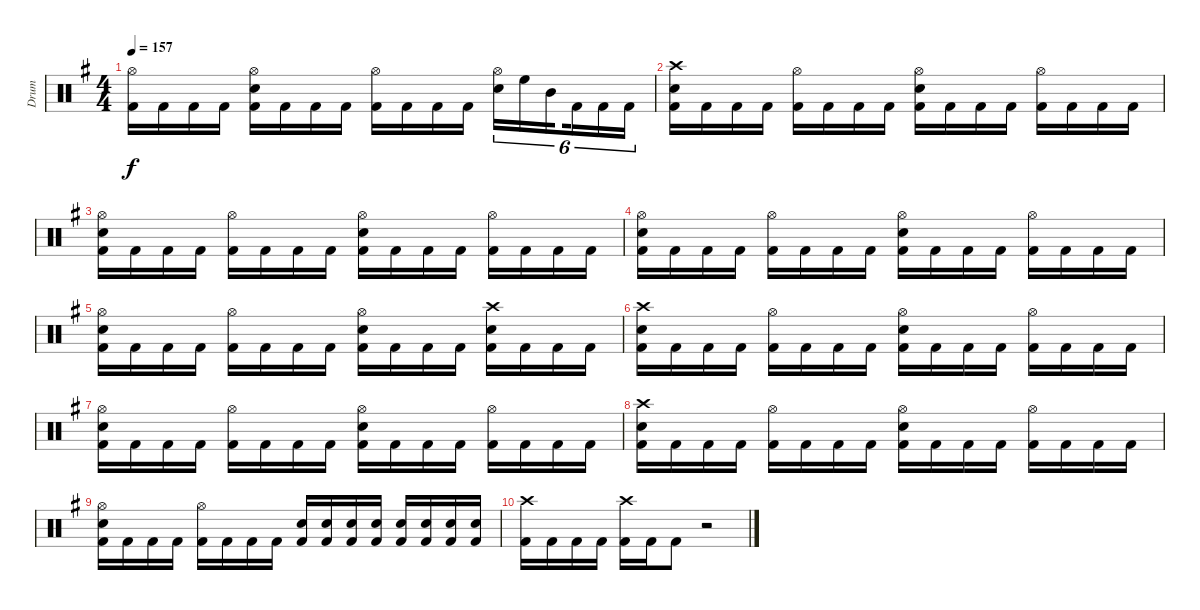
\track ("Drum" "Drum") {instrument percussion}
\staff {score}
\articulation defaults
\ts (4 4)
\tempo 157
\clef neutral
\ks eminor
("Hi-Hat (open)" "Kick (hit) 2").16{dy f} "Kick (hit) 2".16 "Kick (hit) 2".16 "Kick (hit) 2".16 ("Hi-Hat (open)" "Snare (hit) 2" "Kick (hit) 2").16 "Kick (hit) 2".16 "Kick (hit) 2".16 "Kick (hit) 2".16 ("Hi-Hat (open)" "Kick (hit) 2").16 "Kick (hit) 2".16 "Kick (hit) 2".16 "Kick (hit) 2".16 ("Hi-Hat (open)" "Snare (hit) 2").16{tu (6 4)} "High Floor Tom (hit)".16{tu (6 4)} "Mid Tom (hit)".16{tu (6 4) beam splitsecondary} "Kick (hit) 2".16{tu (6 4)} "Kick (hit) 2".16{tu (6 4)} "Kick (hit) 2".16{tu (6 4)} |
("Crash high (hit)" "Snare (hit) 2" "Kick (hit) 2").16 "Kick (hit) 2".16 "Kick (hit) 2".16 "Kick (hit) 2".16 ("Hi-Hat (open)" "Kick (hit) 2").16 "Kick (hit) 2".16 "Kick (hit) 2".16 "Kick (hit) 2".16 ("Hi-Hat (open)" "Snare (hit) 2" "Kick (hit) 2").16 "Kick (hit) 2".16 "Kick (hit) 2".16 "Kick (hit) 2".16 ("Hi-Hat (open)" "Kick (hit) 2").16 "Kick (hit) 2".16 "Kick (hit) 2".16 "Kick (hit) 2".16 |
("Hi-Hat (open)" "Snare (hit) 2" "Kick (hit) 2").16 "Kick (hit) 2".16 "Kick (hit) 2".16 "Kick (hit) 2".16 ("Hi-Hat (open)" "Kick (hit) 2").16 "Kick (hit) 2".16 "Kick (hit) 2".16 "Kick (hit) 2".16 ("Hi-Hat (open)" "Snare (hit) 2" "Kick (hit) 2").16 "Kick (hit) 2".16 "Kick (hit) 2".16 "Kick (hit) 2".16 ("Hi-Hat (open)" "Kick (hit) 2").16 "Kick (hit) 2".16 "Kick (hit) 2".16 "Kick (hit) 2".16 |
("Hi-Hat (open)" "Snare (hit) 2" "Kick (hit) 2").16 "Kick (hit) 2".16 "Kick (hit) 2".16 "Kick (hit) 2".16 ("Hi-Hat (open)" "Kick (hit) 2").16 "Kick (hit) 2".16 "Kick (hit) 2".16 "Kick (hit) 2".16 ("Hi-Hat (open)" "Snare (hit) 2" "Kick (hit) 2").16 "Kick (hit) 2".16 "Kick (hit) 2".16 "Kick (hit) 2".16 ("Hi-Hat (open)" "Kick (hit) 2").16 "Kick (hit) 2".16 "Kick (hit) 2".16 "Kick (hit) 2".16 |
("Hi-Hat (open)" "Snare (hit) 2" "Kick (hit) 2").16 "Kick (hit) 2".16 "Kick (hit) 2".16 "Kick (hit) 2".16 ("Hi-Hat (open)" "Kick (hit) 2").16 "Kick (hit) 2".16 "Kick (hit) 2".16 "Kick (hit) 2".16 ("Hi-Hat (open)" "Snare (hit) 2" "Kick (hit) 2").16 "Kick (hit) 2".16 "Kick (hit) 2".16 "Kick (hit) 2".16 ("Crash high (hit)" "Snare (hit) 2" "Kick (hit) 2").16 "Kick (hit) 2".16 "Kick (hit) 2".16 "Kick (hit) 2".16 |
("Crash high (hit)" "Snare (hit) 2" "Kick (hit) 2").16 "Kick (hit) 2".16 "Kick (hit) 2".16 "Kick (hit) 2".16 ("Hi-Hat (open)" "Kick (hit) 2").16 "Kick (hit) 2".16 "Kick (hit) 2".16 "Kick (hit) 2".16 ("Hi-Hat (open)" "Snare (hit) 2" "Kick (hit) 2").16 "Kick (hit) 2".16 "Kick (hit) 2".16 "Kick (hit) 2".16 ("Hi-Hat (open)" "Kick (hit) 2").16 "Kick (hit) 2".16 "Kick (hit) 2".16 "Kick (hit) 2".16 |
("Hi-Hat (open)" "Snare (hit) 2" "Kick (hit) 2").16 "Kick (hit) 2".16 "Kick (hit) 2".16 "Kick (hit) 2".16 ("Hi-Hat (open)" "Kick (hit) 2").16 "Kick (hit) 2".16 "Kick (hit) 2".16 "Kick (hit) 2".16 ("Hi-Hat (open)" "Snare (hit) 2" "Kick (hit) 2").16 "Kick (hit) 2".16 "Kick (hit) 2".16 "Kick (hit) 2".16 ("Hi-Hat (open)" "Kick (hit) 2").16 "Kick (hit) 2".16 "Kick (hit) 2".16 "Kick (hit) 2".16 |
("Crash high (hit)" "Snare (hit) 2" "Kick (hit) 2").16 "Kick (hit) 2".16 "Kick (hit) 2".16 "Kick (hit) 2".16 ("Hi-Hat (open)" "Kick (hit) 2").16 "Kick (hit) 2".16 "Kick (hit) 2".16 "Kick (hit) 2".16 ("Hi-Hat (open)" "Snare (hit) 2" "Kick (hit) 2").16 "Kick (hit) 2".16 "Kick (hit) 2".16 "Kick (hit) 2".16 ("Hi-Hat (open)" "Kick (hit) 2").16 "Kick (hit) 2".16 "Kick (hit) 2".16 "Kick (hit) 2".16 |
("Hi-Hat (open)" "Snare (hit) 2" "Kick (hit) 2").16 "Kick (hit) 2".16 "Kick (hit) 2".16 "Kick (hit) 2".16 ("Hi-Hat (open)" "Kick (hit) 2").16 "Kick (hit) 2".16 "Kick (hit) 2".16 "Kick (hit) 2".16 ("Snare (hit) 2" "Kick (hit) 2").16 ("Snare (hit) 2" "Kick (hit) 2").16 ("Snare (hit) 2" "Kick (hit) 2").16 ("Snare (hit) 2" "Kick (hit) 2").16 ("Snare (hit) 2" "Kick (hit) 2").16 ("Snare (hit) 2" "Kick (hit) 2").16 ("Snare (hit) 2" "Kick (hit) 2").16 ("Snare (hit) 2" "Kick (hit) 2").16 |
("Crash high (hit)" "Kick (hit) 2").16 "Kick (hit) 2".16 "Kick (hit) 2".16 "Kick (hit) 2".16 ("Crash high (hit)" "Kick (hit) 2").16 "Kick (hit) 2".16 "Kick (hit) 2".8 r.2
